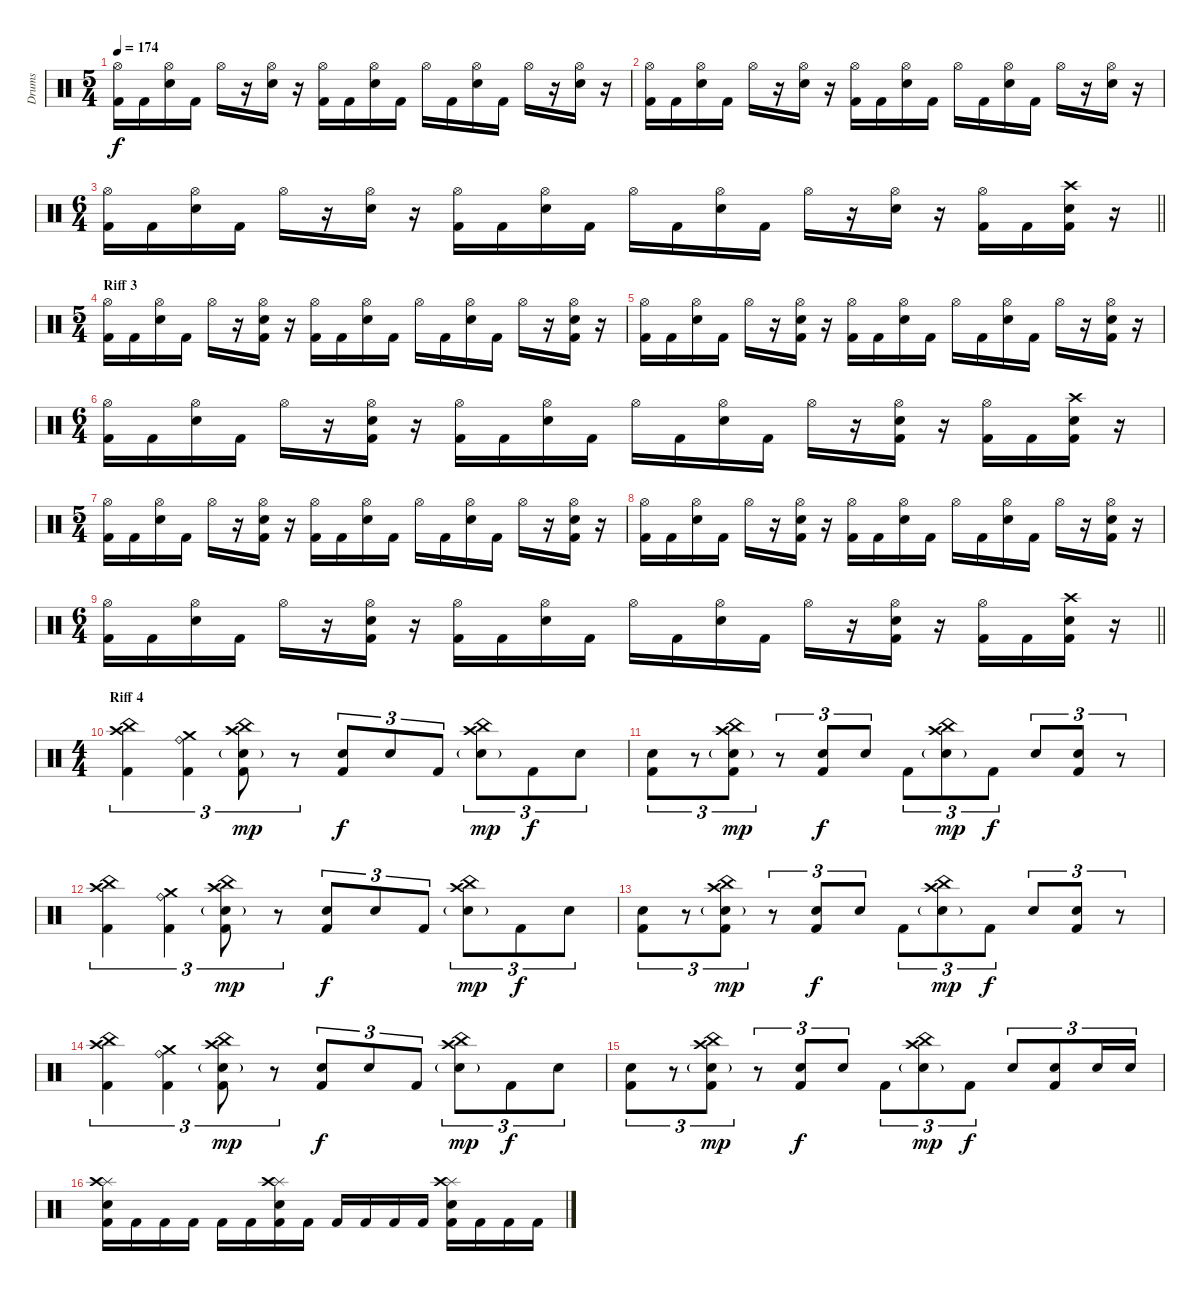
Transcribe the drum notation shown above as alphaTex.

\track ("Drums" "Drums") {instrument percussion}
\staff {score}
\articulation defaults
\ts (5 4)
\tempo 174
\clef neutral
\ks c
("Hi-Hat (open)" "Kick (hit) 2").16{dy f} "Kick (hit) 2".16 ("Hi-Hat (open)" "Electric Snare (hit)").16 "Kick (hit) 2".16 "Hi-Hat (open)".16 r.16 ("Hi-Hat (open)" "Electric Snare (hit)").16 r.16 ("Hi-Hat (open)" "Kick (hit) 2").16 "Kick (hit) 2".16 ("Hi-Hat (open)" "Electric Snare (hit)").16 "Kick (hit) 2".16 "Hi-Hat (open)".16 "Kick (hit) 2".16 ("Hi-Hat (open)" "Electric Snare (hit)").16 "Kick (hit) 2".16 "Hi-Hat (open)".16 r.16 ("Hi-Hat (open)" "Electric Snare (hit)").16 r.16 |
("Hi-Hat (open)" "Kick (hit) 2").16 "Kick (hit) 2".16 ("Hi-Hat (open)" "Electric Snare (hit)").16 "Kick (hit) 2".16 "Hi-Hat (open)".16 r.16 ("Hi-Hat (open)" "Electric Snare (hit)").16 r.16 ("Hi-Hat (open)" "Kick (hit) 2").16 "Kick (hit) 2".16 ("Hi-Hat (open)" "Electric Snare (hit)").16 "Kick (hit) 2".16 "Hi-Hat (open)".16 "Kick (hit) 2".16 ("Hi-Hat (open)" "Electric Snare (hit)").16 "Kick (hit) 2".16 "Hi-Hat (open)".16 r.16 ("Hi-Hat (open)" "Electric Snare (hit)").16 r.16 |
\ts (6 4)
\barLineRight lightlight
("Hi-Hat (open)" "Kick (hit) 2").16 "Kick (hit) 2".16 ("Hi-Hat (open)" "Electric Snare (hit)").16 "Kick (hit) 2".16 "Hi-Hat (open)".16 r.16 ("Hi-Hat (open)" "Electric Snare (hit)").16 r.16 ("Hi-Hat (open)" "Kick (hit) 2").16 "Kick (hit) 2".16 ("Hi-Hat (open)" "Electric Snare (hit)").16 "Kick (hit) 2".16 "Hi-Hat (open)".16 "Kick (hit) 2".16 ("Hi-Hat (open)" "Electric Snare (hit)").16 "Kick (hit) 2".16 "Hi-Hat (open)".16 r.16 ("Hi-Hat (open)" "Electric Snare (hit)").16 r.16 ("Hi-Hat (open)" "Kick (hit) 2").16 "Kick (hit) 2".16 ("Crash high (hit)" "Electric Snare (hit)" "Kick (hit) 2").16 r.16 |
\ts (5 4)
\section ("" "Riff 3")
("Hi-Hat (open)" "Kick (hit) 2").16 "Kick (hit) 2".16 ("Hi-Hat (open)" "Electric Snare (hit)").16 "Kick (hit) 2".16 "Hi-Hat (open)".16 r.16 ("Hi-Hat (open)" "Electric Snare (hit)" "Kick (hit) 2").16 r.16 ("Hi-Hat (open)" "Kick (hit) 2").16 "Kick (hit) 2".16 ("Hi-Hat (open)" "Electric Snare (hit)").16 "Kick (hit) 2".16 "Hi-Hat (open)".16 "Kick (hit) 2".16 ("Hi-Hat (open)" "Electric Snare (hit)").16 "Kick (hit) 2".16 "Hi-Hat (open)".16 r.16 ("Hi-Hat (open)" "Electric Snare (hit)" "Kick (hit) 2").16 r.16 |
("Hi-Hat (open)" "Kick (hit) 2").16 "Kick (hit) 2".16 ("Hi-Hat (open)" "Electric Snare (hit)").16 "Kick (hit) 2".16 "Hi-Hat (open)".16 r.16 ("Hi-Hat (open)" "Electric Snare (hit)" "Kick (hit) 2").16 r.16 ("Hi-Hat (open)" "Kick (hit) 2").16 "Kick (hit) 2".16 ("Hi-Hat (open)" "Electric Snare (hit)").16 "Kick (hit) 2".16 "Hi-Hat (open)".16 "Kick (hit) 2".16 ("Hi-Hat (open)" "Electric Snare (hit)").16 "Kick (hit) 2".16 "Hi-Hat (open)".16 r.16 ("Hi-Hat (open)" "Electric Snare (hit)" "Kick (hit) 2").16 r.16 |
\ts (6 4)
("Hi-Hat (open)" "Kick (hit) 2").16 "Kick (hit) 2".16 ("Hi-Hat (open)" "Electric Snare (hit)").16 "Kick (hit) 2".16 "Hi-Hat (open)".16 r.16 ("Hi-Hat (open)" "Electric Snare (hit)" "Kick (hit) 2").16 r.16 ("Hi-Hat (open)" "Kick (hit) 2").16 "Kick (hit) 2".16 ("Hi-Hat (open)" "Electric Snare (hit)").16 "Kick (hit) 2".16 "Hi-Hat (open)".16 "Kick (hit) 2".16 ("Hi-Hat (open)" "Electric Snare (hit)").16 "Kick (hit) 2".16 "Hi-Hat (open)".16 r.16 ("Hi-Hat (open)" "Electric Snare (hit)" "Kick (hit) 2").16 r.16 ("Hi-Hat (open)" "Kick (hit) 2").16 "Kick (hit) 2".16 ("Crash high (hit)" "Electric Snare (hit)" "Kick (hit) 2").16 r.16 |
\ts (5 4)
("Hi-Hat (open)" "Kick (hit) 2").16 "Kick (hit) 2".16 ("Hi-Hat (open)" "Electric Snare (hit)").16 "Kick (hit) 2".16 "Hi-Hat (open)".16 r.16 ("Hi-Hat (open)" "Electric Snare (hit)" "Kick (hit) 2").16 r.16 ("Hi-Hat (open)" "Kick (hit) 2").16 "Kick (hit) 2".16 ("Hi-Hat (open)" "Electric Snare (hit)").16 "Kick (hit) 2".16 "Hi-Hat (open)".16 "Kick (hit) 2".16 ("Hi-Hat (open)" "Electric Snare (hit)").16 "Kick (hit) 2".16 "Hi-Hat (open)".16 r.16 ("Hi-Hat (open)" "Electric Snare (hit)" "Kick (hit) 2").16 r.16 |
("Hi-Hat (open)" "Kick (hit) 2").16 "Kick (hit) 2".16 ("Hi-Hat (open)" "Electric Snare (hit)").16 "Kick (hit) 2".16 "Hi-Hat (open)".16 r.16 ("Hi-Hat (open)" "Electric Snare (hit)" "Kick (hit) 2").16 r.16 ("Hi-Hat (open)" "Kick (hit) 2").16 "Kick (hit) 2".16 ("Hi-Hat (open)" "Electric Snare (hit)").16 "Kick (hit) 2".16 "Hi-Hat (open)".16 "Kick (hit) 2".16 ("Hi-Hat (open)" "Electric Snare (hit)").16 "Kick (hit) 2".16 "Hi-Hat (open)".16 r.16 ("Hi-Hat (open)" "Electric Snare (hit)" "Kick (hit) 2").16 r.16 |
\ts (6 4)
\barLineRight lightlight
("Hi-Hat (open)" "Kick (hit) 2").16 "Kick (hit) 2".16 ("Hi-Hat (open)" "Electric Snare (hit)").16 "Kick (hit) 2".16 "Hi-Hat (open)".16 r.16 ("Hi-Hat (open)" "Electric Snare (hit)" "Kick (hit) 2").16 r.16 ("Hi-Hat (open)" "Kick (hit) 2").16 "Kick (hit) 2".16 ("Hi-Hat (open)" "Electric Snare (hit)").16 "Kick (hit) 2".16 "Hi-Hat (open)".16 "Kick (hit) 2".16 ("Hi-Hat (open)" "Electric Snare (hit)").16 "Kick (hit) 2".16 "Hi-Hat (open)".16 r.16 ("Hi-Hat (open)" "Electric Snare (hit)" "Kick (hit) 2").16 r.16 ("Hi-Hat (open)" "Kick (hit) 2").16 "Kick (hit) 2".16 ("Crash high (hit)" "Electric Snare (hit)" "Kick (hit) 2").16 r.16 |
\ts (4 4)
\section ("" "Riff 4")
("China (hit)" "Crash high (hit)" "Kick (hit) 2").4{tu (3 2)} ("Ride (bell)" "Crash medium (hit)" "Kick (hit) 2").4{tu (3 2)} ("China (hit)" "Crash high (hit)" "Electric Snare (hit)"{g} "Kick (hit) 2").8{tu (3 2) dy mp} r.8{tu (3 2)} ("Electric Snare (hit)" "Kick (hit) 2").8{tu (3 2) dy f} "Electric Snare (hit)".8{tu (3 2)} "Kick (hit) 2".8{tu (3 2)} ("China (hit)" "Crash high (hit)" "Electric Snare (hit)"{g}).8{tu (3 2) dy mp} "Kick (hit) 2".8{tu (3 2) dy f} "Electric Snare (hit)".8{tu (3 2)} |
("Electric Snare (hit)" "Kick (hit) 2").8{tu (3 2)} r.8{tu (3 2)} ("China (hit)" "Crash high (hit)" "Electric Snare (hit)"{g} "Kick (hit) 2").8{tu (3 2) dy mp} r.8{tu (3 2)} ("Electric Snare (hit)" "Kick (hit) 2").8{tu (3 2) dy f} "Electric Snare (hit)".8{tu (3 2)} "Kick (hit) 2".8{tu (3 2)} ("China (hit)" "Crash high (hit)" "Electric Snare (hit)"{g}).8{tu (3 2) dy mp} "Kick (hit) 2".8{tu (3 2) dy f} "Electric Snare (hit)".8{tu (3 2)} ("Electric Snare (hit)" "Kick (hit) 2").8{tu (3 2)} r.8{tu (3 2)} |
("China (hit)" "Crash high (hit)" "Kick (hit) 2").4{tu (3 2)} ("Ride (bell)" "Crash medium (hit)" "Kick (hit) 2").4{tu (3 2)} ("China (hit)" "Crash high (hit)" "Electric Snare (hit)"{g} "Kick (hit) 2").8{tu (3 2) dy mp} r.8{tu (3 2)} ("Electric Snare (hit)" "Kick (hit) 2").8{tu (3 2) dy f} "Electric Snare (hit)".8{tu (3 2)} "Kick (hit) 2".8{tu (3 2)} ("China (hit)" "Crash high (hit)" "Electric Snare (hit)"{g}).8{tu (3 2) dy mp} "Kick (hit) 2".8{tu (3 2) dy f} "Electric Snare (hit)".8{tu (3 2)} |
("Electric Snare (hit)" "Kick (hit) 2").8{tu (3 2)} r.8{tu (3 2)} ("China (hit)" "Crash high (hit)" "Electric Snare (hit)"{g} "Kick (hit) 2").8{tu (3 2) dy mp} r.8{tu (3 2)} ("Electric Snare (hit)" "Kick (hit) 2").8{tu (3 2) dy f} "Electric Snare (hit)".8{tu (3 2)} "Kick (hit) 2".8{tu (3 2)} ("China (hit)" "Crash high (hit)" "Electric Snare (hit)"{g}).8{tu (3 2) dy mp} "Kick (hit) 2".8{tu (3 2) dy f} "Electric Snare (hit)".8{tu (3 2)} ("Electric Snare (hit)" "Kick (hit) 2").8{tu (3 2)} r.8{tu (3 2)} |
("China (hit)" "Crash high (hit)" "Kick (hit) 2").4{tu (3 2)} ("Ride (bell)" "Crash medium (hit)" "Kick (hit) 2").4{tu (3 2)} ("China (hit)" "Crash high (hit)" "Electric Snare (hit)"{g} "Kick (hit) 2").8{tu (3 2) dy mp} r.8{tu (3 2)} ("Electric Snare (hit)" "Kick (hit) 2").8{tu (3 2) dy f} "Electric Snare (hit)".8{tu (3 2)} "Kick (hit) 2".8{tu (3 2)} ("China (hit)" "Crash high (hit)" "Electric Snare (hit)"{g}).8{tu (3 2) dy mp} "Kick (hit) 2".8{tu (3 2) dy f} "Electric Snare (hit)".8{tu (3 2)} |
("Electric Snare (hit)" "Kick (hit) 2").8{tu (3 2)} r.8{tu (3 2)} ("China (hit)" "Crash high (hit)" "Electric Snare (hit)"{g} "Kick (hit) 2").8{tu (3 2) dy mp} r.8{tu (3 2)} ("Electric Snare (hit)" "Kick (hit) 2").8{tu (3 2) dy f} "Electric Snare (hit)".8{tu (3 2)} "Kick (hit) 2".8{tu (3 2)} ("China (hit)" "Crash high (hit)" "Electric Snare (hit)"{g}).8{tu (3 2) dy mp} "Kick (hit) 2".8{tu (3 2) dy f} "Electric Snare (hit)".8{tu (3 2)} ("Electric Snare (hit)" "Kick (hit) 2").8{tu (3 2)} "Electric Snare (hit)".16{tu (3 2)} "Electric Snare (hit)".16{tu (3 2)} |
("Splash (hit)" "Crash high (hit)" "Electric Snare (hit)" "Kick (hit) 2").16 "Kick (hit) 2".16 "Kick (hit) 2".16 "Kick (hit) 2".16 "Kick (hit) 2".16 "Kick (hit) 2".16 ("Splash (hit)" "Crash high (hit)" "Electric Snare (hit)" "Kick (hit) 2").16 "Kick (hit) 2".16 "Kick (hit) 2".16 "Kick (hit) 2".16 "Kick (hit) 2".16 "Kick (hit) 2".16 ("Splash (hit)" "Crash high (hit)" "Electric Snare (hit)" "Kick (hit) 2").16 "Kick (hit) 2".16 "Kick (hit) 2".16 "Kick (hit) 2".16
